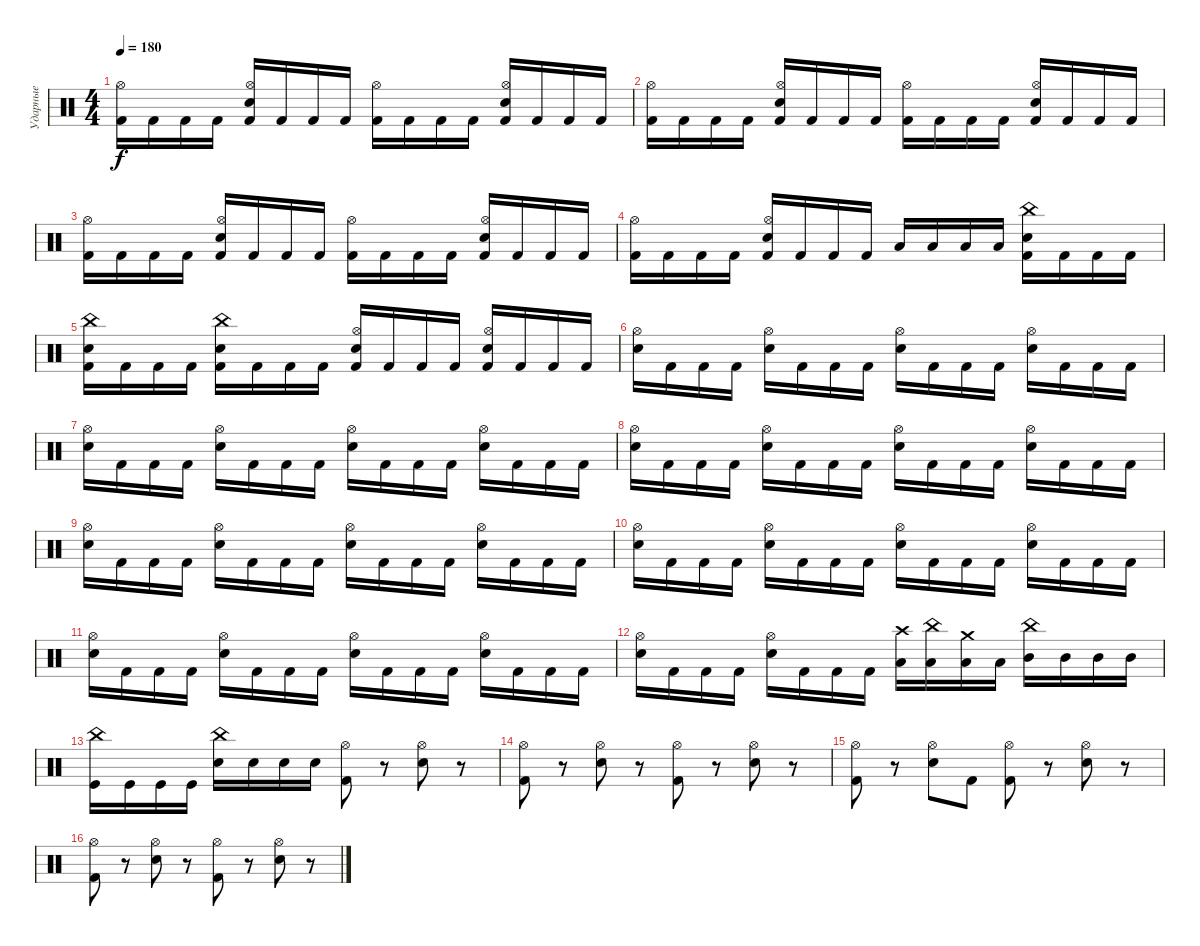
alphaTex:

\track ("Ударные" "Ударные") {instrument percussion}
\staff {score}
\articulation defaults
\ts (4 4)
\tempo 180
\clef neutral
\ks c
("Kick (hit) 2" "Hi-Hat (open)").16{dy f} "Kick (hit) 2".16 "Kick (hit) 2".16 "Kick (hit) 2".16 ("Kick (hit) 2" "Electric Snare (hit)" "Hi-Hat (open)").16 "Kick (hit) 2".16 "Kick (hit) 2".16 "Kick (hit) 2".16 ("Kick (hit) 2" "Hi-Hat (open)").16 "Kick (hit) 2".16 "Kick (hit) 2".16 "Kick (hit) 2".16 ("Kick (hit) 2" "Electric Snare (hit)" "Hi-Hat (open)").16 "Kick (hit) 2".16 "Kick (hit) 2".16 "Kick (hit) 2".16 |
("Kick (hit) 2" "Hi-Hat (open)").16 "Kick (hit) 2".16 "Kick (hit) 2".16 "Kick (hit) 2".16 ("Kick (hit) 2" "Electric Snare (hit)" "Hi-Hat (open)").16 "Kick (hit) 2".16 "Kick (hit) 2".16 "Kick (hit) 2".16 ("Kick (hit) 2" "Hi-Hat (open)").16 "Kick (hit) 2".16 "Kick (hit) 2".16 "Kick (hit) 2".16 ("Kick (hit) 2" "Electric Snare (hit)" "Hi-Hat (open)").16 "Kick (hit) 2".16 "Kick (hit) 2".16 "Kick (hit) 2".16 |
("Kick (hit) 2" "Hi-Hat (open)").16 "Kick (hit) 2".16 "Kick (hit) 2".16 "Kick (hit) 2".16 ("Kick (hit) 2" "Electric Snare (hit)" "Hi-Hat (open)").16 "Kick (hit) 2".16 "Kick (hit) 2".16 "Kick (hit) 2".16 ("Kick (hit) 2" "Hi-Hat (open)").16 "Kick (hit) 2".16 "Kick (hit) 2".16 "Kick (hit) 2".16 ("Kick (hit) 2" "Electric Snare (hit)" "Hi-Hat (open)").16 "Kick (hit) 2".16 "Kick (hit) 2".16 "Kick (hit) 2".16 |
("Kick (hit) 2" "Hi-Hat (open)").16 "Kick (hit) 2".16 "Kick (hit) 2".16 "Kick (hit) 2".16 ("Kick (hit) 2" "Electric Snare (hit)" "Hi-Hat (open)").16 "Kick (hit) 2".16 "Kick (hit) 2".16 "Kick (hit) 2".16 "Low Tom (hit)".16 "Low Tom (hit)".16 "Low Tom (hit)".16 "Low Tom (hit)".16 ("Kick (hit) 2" "Electric Snare (hit)" "China (hit)").16 "Kick (hit) 2".16 "Kick (hit) 2".16 "Kick (hit) 2".16 |
("Kick (hit) 2" "China (hit)" "Electric Snare (hit)").16 "Kick (hit) 2".16 "Kick (hit) 2".16 "Kick (hit) 2".16 ("Kick (hit) 2" "Electric Snare (hit)" "China (hit)").16 "Kick (hit) 2".16 "Kick (hit) 2".16 "Kick (hit) 2".16 ("Kick (hit) 2" "Hi-Hat (open)" "Electric Snare (hit)").16 "Kick (hit) 2".16 "Kick (hit) 2".16 "Kick (hit) 2".16 ("Kick (hit) 2" "Electric Snare (hit)" "Hi-Hat (open)").16 "Kick (hit) 2".16 "Kick (hit) 2".16 "Kick (hit) 2".16 |
("Hi-Hat (open)" "Electric Snare (hit)").16 "Kick (hit) 2".16 "Kick (hit) 2".16 "Kick (hit) 2".16 ("Electric Snare (hit)" "Hi-Hat (open)").16 "Kick (hit) 2".16 "Kick (hit) 2".16 "Kick (hit) 2".16 ("Electric Snare (hit)" "Hi-Hat (open)").16 "Kick (hit) 2".16 "Kick (hit) 2".16 "Kick (hit) 2".16 ("Electric Snare (hit)" "Hi-Hat (open)").16 "Kick (hit) 2".16 "Kick (hit) 2".16 "Kick (hit) 2".16 |
("Hi-Hat (open)" "Electric Snare (hit)").16 "Kick (hit) 2".16 "Kick (hit) 2".16 "Kick (hit) 2".16 ("Electric Snare (hit)" "Hi-Hat (open)").16 "Kick (hit) 2".16 "Kick (hit) 2".16 "Kick (hit) 2".16 ("Electric Snare (hit)" "Hi-Hat (open)").16 "Kick (hit) 2".16 "Kick (hit) 2".16 "Kick (hit) 2".16 ("Electric Snare (hit)" "Hi-Hat (open)").16 "Kick (hit) 2".16 "Kick (hit) 2".16 "Kick (hit) 2".16 |
("Hi-Hat (open)" "Electric Snare (hit)").16 "Kick (hit) 2".16 "Kick (hit) 2".16 "Kick (hit) 2".16 ("Electric Snare (hit)" "Hi-Hat (open)").16 "Kick (hit) 2".16 "Kick (hit) 2".16 "Kick (hit) 2".16 ("Electric Snare (hit)" "Hi-Hat (open)").16 "Kick (hit) 2".16 "Kick (hit) 2".16 "Kick (hit) 2".16 ("Electric Snare (hit)" "Hi-Hat (open)").16 "Kick (hit) 2".16 "Kick (hit) 2".16 "Kick (hit) 2".16 |
("Hi-Hat (open)" "Electric Snare (hit)").16 "Kick (hit) 2".16 "Kick (hit) 2".16 "Kick (hit) 2".16 ("Electric Snare (hit)" "Hi-Hat (open)").16 "Kick (hit) 2".16 "Kick (hit) 2".16 "Kick (hit) 2".16 ("Electric Snare (hit)" "Hi-Hat (open)").16 "Kick (hit) 2".16 "Kick (hit) 2".16 "Kick (hit) 2".16 ("Electric Snare (hit)" "Hi-Hat (open)").16 "Kick (hit) 2".16 "Kick (hit) 2".16 "Kick (hit) 2".16 |
("Hi-Hat (open)" "Electric Snare (hit)").16 "Kick (hit) 2".16 "Kick (hit) 2".16 "Kick (hit) 2".16 ("Electric Snare (hit)" "Hi-Hat (open)").16 "Kick (hit) 2".16 "Kick (hit) 2".16 "Kick (hit) 2".16 ("Electric Snare (hit)" "Hi-Hat (open)").16 "Kick (hit) 2".16 "Kick (hit) 2".16 "Kick (hit) 2".16 ("Electric Snare (hit)" "Hi-Hat (open)").16 "Kick (hit) 2".16 "Kick (hit) 2".16 "Kick (hit) 2".16 |
("Hi-Hat (open)" "Electric Snare (hit)").16 "Kick (hit) 2".16 "Kick (hit) 2".16 "Kick (hit) 2".16 ("Electric Snare (hit)" "Hi-Hat (open)").16 "Kick (hit) 2".16 "Kick (hit) 2".16 "Kick (hit) 2".16 ("Electric Snare (hit)" "Hi-Hat (open)").16 "Kick (hit) 2".16 "Kick (hit) 2".16 "Kick (hit) 2".16 ("Electric Snare (hit)" "Hi-Hat (open)").16 "Kick (hit) 2".16 "Kick (hit) 2".16 "Kick (hit) 2".16 |
("Hi-Hat (open)" "Electric Snare (hit)").16 "Kick (hit) 2".16 "Kick (hit) 2".16 "Kick (hit) 2".16 ("Electric Snare (hit)" "Hi-Hat (open)").16 "Kick (hit) 2".16 "Kick (hit) 2".16 "Kick (hit) 2".16 ("Low Tom (hit)" "Crash high (hit)").16 ("Low Tom (hit)" "China (hit)").16 ("Low Tom (hit)" "Crash medium (hit)").16 "Low Tom (hit)".16 ("Mid Tom (hit)" "China (hit)").16 "Mid Tom (hit)".16 "Mid Tom (hit)".16 "Mid Tom (hit)".16 |
("Kick (hit)" "China (hit)").16 "Kick (hit)".16 "Kick (hit)".16 "Kick (hit)".16 ("Electric Snare (hit)" "China (hit)").16 "Electric Snare (hit)".16 "Electric Snare (hit)".16 "Electric Snare (hit)".16 ("Kick (hit) 2" "Hi-Hat (open)").8 r.8 ("Electric Snare (hit)" "Hi-Hat (open)").8 r.8 |
("Kick (hit) 2" "Hi-Hat (open)").8 r.8 ("Electric Snare (hit)" "Hi-Hat (open)").8 r.8 ("Kick (hit) 2" "Hi-Hat (open)").8 r.8 ("Electric Snare (hit)" "Hi-Hat (open)").8 r.8 |
("Kick (hit) 2" "Hi-Hat (open)").8 r.8 ("Electric Snare (hit)" "Hi-Hat (open)").8 "Kick (hit) 2".8 ("Kick (hit) 2" "Hi-Hat (open)").8 r.8 ("Electric Snare (hit)" "Hi-Hat (open)").8 r.8 |
("Kick (hit) 2" "Hi-Hat (open)").8 r.8 ("Electric Snare (hit)" "Hi-Hat (open)").8 r.8 ("Kick (hit) 2" "Hi-Hat (open)").8 r.8 ("Electric Snare (hit)" "Hi-Hat (open)").8 r.8
